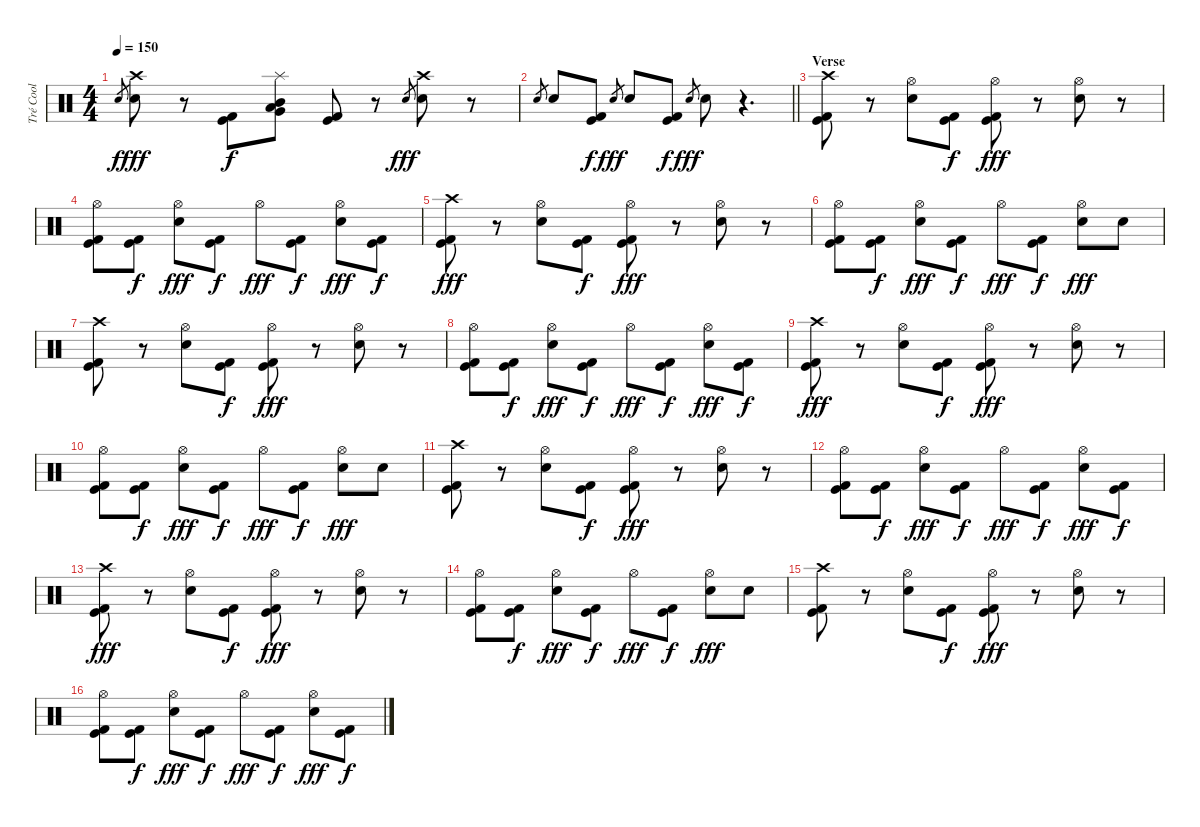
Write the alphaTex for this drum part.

\track ("Tré Cool" "Tré Cool") {instrument percussion}
\staff {score}
\articulation defaults
\ts (4 4)
\tempo 150
\clef neutral
\ks c "Snare (hit) 2".8{gr dy f}
("Crash high (hit)" "Snare (hit) 2").8{dy fff} r.8 ("Kick (hit)" "Kick (hit) 2").8{dy f} ("Splash (hit)" "Mid Tom (hit)" "Low Tom (hit)" "Very Low Tom (hit)").8 ("Kick (hit)" "Kick (hit) 2").8 r.8 "Snare (hit) 2".8{gr dy fff} ("Crash high (hit)" "Snare (hit) 2").8 r.8 |
\barLineRight lightlight "Snare (hit) 2".8{gr} "Snare (hit) 2".8
("Kick (hit)" "Kick (hit) 2").8{dy f} "Snare (hit) 2".8{gr dy fff} "Snare (hit) 2".8 ("Kick (hit)" "Kick (hit) 2").8{dy f} "Snare (hit) 2".8{gr dy fff} "Snare (hit) 2".8 r.4{d} |
\section ("" "Verse")
("Crash high (hit)" "Kick (hit)" "Kick (hit) 2").8 r.8 ("Hi-Hat (open)" "Snare (hit) 2").8 ("Kick (hit)" "Kick (hit) 2").8{dy f} ("Hi-Hat (open)" "Kick (hit)" "Kick (hit) 2").8{dy fff} r.8 ("Hi-Hat (open)" "Snare (hit) 2").8 r.8 |
("Hi-Hat (open)" "Kick (hit)" "Kick (hit) 2").8 ("Kick (hit)" "Kick (hit) 2").8{dy f} ("Hi-Hat (open)" "Snare (hit) 2").8{dy fff} ("Kick (hit)" "Kick (hit) 2").8{dy f} "Hi-Hat (open)".8{dy fff} ("Kick (hit)" "Kick (hit) 2").8{dy f} ("Hi-Hat (open)" "Snare (hit) 2").8{dy fff} ("Kick (hit)" "Kick (hit) 2").8{dy f} |
("Crash high (hit)" "Kick (hit)" "Kick (hit) 2").8{dy fff} r.8 ("Hi-Hat (open)" "Snare (hit) 2").8 ("Kick (hit)" "Kick (hit) 2").8{dy f} ("Hi-Hat (open)" "Kick (hit)" "Kick (hit) 2").8{dy fff} r.8 ("Hi-Hat (open)" "Snare (hit) 2").8 r.8 |
("Hi-Hat (open)" "Kick (hit)" "Kick (hit) 2").8 ("Kick (hit)" "Kick (hit) 2").8{dy f} ("Hi-Hat (open)" "Snare (hit) 2").8{dy fff} ("Kick (hit)" "Kick (hit) 2").8{dy f} "Hi-Hat (open)".8{dy fff} ("Kick (hit)" "Kick (hit) 2").8{dy f} ("Hi-Hat (open)" "Snare (hit) 2").8{dy fff} "Snare (hit) 2".8 |
("Crash high (hit)" "Kick (hit)" "Kick (hit) 2").8 r.8 ("Hi-Hat (open)" "Snare (hit) 2").8 ("Kick (hit)" "Kick (hit) 2").8{dy f} ("Hi-Hat (open)" "Kick (hit)" "Kick (hit) 2").8{dy fff} r.8 ("Hi-Hat (open)" "Snare (hit) 2").8 r.8 |
("Hi-Hat (open)" "Kick (hit)" "Kick (hit) 2").8 ("Kick (hit)" "Kick (hit) 2").8{dy f} ("Hi-Hat (open)" "Snare (hit) 2").8{dy fff} ("Kick (hit)" "Kick (hit) 2").8{dy f} "Hi-Hat (open)".8{dy fff} ("Kick (hit)" "Kick (hit) 2").8{dy f} ("Hi-Hat (open)" "Snare (hit) 2").8{dy fff} ("Kick (hit)" "Kick (hit) 2").8{dy f} |
("Crash high (hit)" "Kick (hit)" "Kick (hit) 2").8{dy fff} r.8 ("Hi-Hat (open)" "Snare (hit) 2").8 ("Kick (hit)" "Kick (hit) 2").8{dy f} ("Hi-Hat (open)" "Kick (hit)" "Kick (hit) 2").8{dy fff} r.8 ("Hi-Hat (open)" "Snare (hit) 2").8 r.8 |
("Hi-Hat (open)" "Kick (hit)" "Kick (hit) 2").8 ("Kick (hit)" "Kick (hit) 2").8{dy f} ("Hi-Hat (open)" "Snare (hit) 2").8{dy fff} ("Kick (hit)" "Kick (hit) 2").8{dy f} "Hi-Hat (open)".8{dy fff} ("Kick (hit)" "Kick (hit) 2").8{dy f} ("Hi-Hat (open)" "Snare (hit) 2").8{dy fff} "Snare (hit) 2".8 |
("Crash high (hit)" "Kick (hit)" "Kick (hit) 2").8 r.8 ("Hi-Hat (open)" "Snare (hit) 2").8 ("Kick (hit)" "Kick (hit) 2").8{dy f} ("Hi-Hat (open)" "Kick (hit)" "Kick (hit) 2").8{dy fff} r.8 ("Hi-Hat (open)" "Snare (hit) 2").8 r.8 |
("Hi-Hat (open)" "Kick (hit)" "Kick (hit) 2").8 ("Kick (hit)" "Kick (hit) 2").8{dy f} ("Hi-Hat (open)" "Snare (hit) 2").8{dy fff} ("Kick (hit)" "Kick (hit) 2").8{dy f} "Hi-Hat (open)".8{dy fff} ("Kick (hit)" "Kick (hit) 2").8{dy f} ("Hi-Hat (open)" "Snare (hit) 2").8{dy fff} ("Kick (hit)" "Kick (hit) 2").8{dy f} |
("Crash high (hit)" "Kick (hit)" "Kick (hit) 2").8{dy fff} r.8 ("Hi-Hat (open)" "Snare (hit) 2").8 ("Kick (hit)" "Kick (hit) 2").8{dy f} ("Hi-Hat (open)" "Kick (hit)" "Kick (hit) 2").8{dy fff} r.8 ("Hi-Hat (open)" "Snare (hit) 2").8 r.8 |
("Hi-Hat (open)" "Kick (hit)" "Kick (hit) 2").8 ("Kick (hit)" "Kick (hit) 2").8{dy f} ("Hi-Hat (open)" "Snare (hit) 2").8{dy fff} ("Kick (hit)" "Kick (hit) 2").8{dy f} "Hi-Hat (open)".8{dy fff} ("Kick (hit)" "Kick (hit) 2").8{dy f} ("Hi-Hat (open)" "Snare (hit) 2").8{dy fff} "Snare (hit) 2".8 |
("Crash high (hit)" "Kick (hit)" "Kick (hit) 2").8 r.8 ("Hi-Hat (open)" "Snare (hit) 2").8 ("Kick (hit)" "Kick (hit) 2").8{dy f} ("Hi-Hat (open)" "Kick (hit)" "Kick (hit) 2").8{dy fff} r.8 ("Hi-Hat (open)" "Snare (hit) 2").8 r.8 |
("Hi-Hat (open)" "Kick (hit)" "Kick (hit) 2").8 ("Kick (hit)" "Kick (hit) 2").8{dy f} ("Hi-Hat (open)" "Snare (hit) 2").8{dy fff} ("Kick (hit)" "Kick (hit) 2").8{dy f} "Hi-Hat (open)".8{dy fff} ("Kick (hit)" "Kick (hit) 2").8{dy f} ("Hi-Hat (open)" "Snare (hit) 2").8{dy fff} ("Kick (hit)" "Kick (hit) 2").8{dy f}
